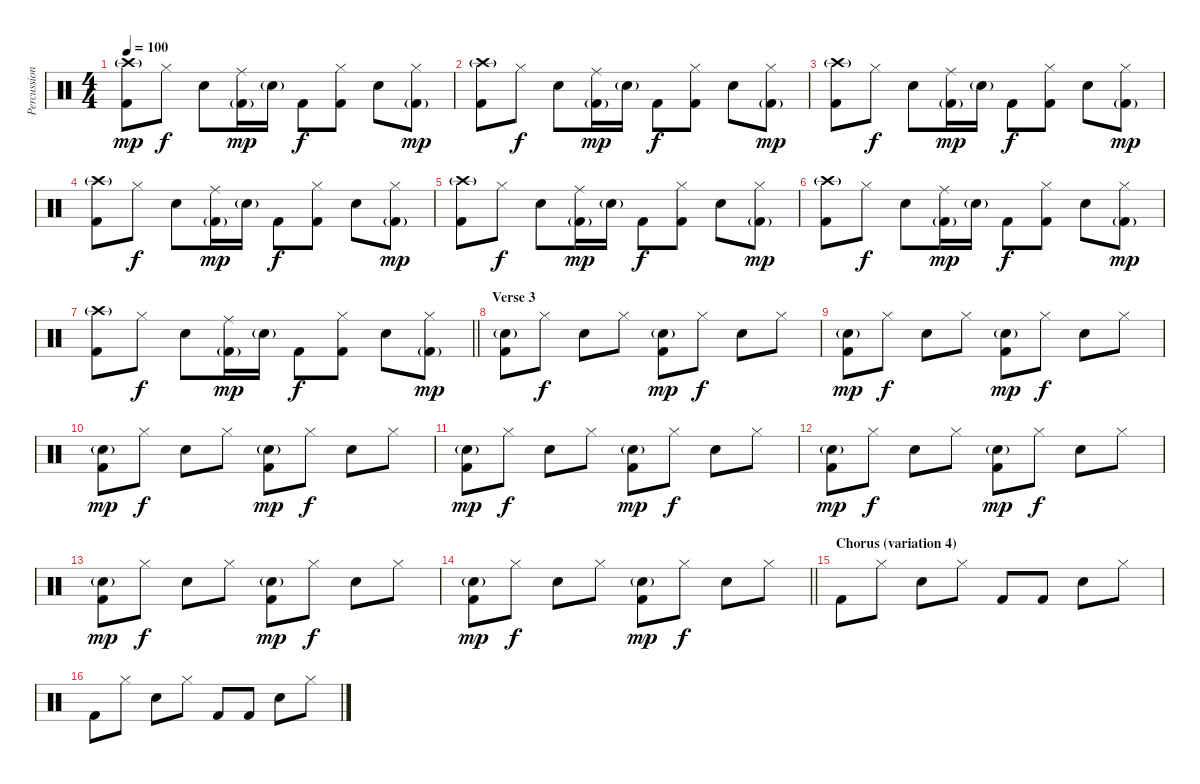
\track ("Percussion" "Percussion") {instrument percussion}
\staff {score}
\articulation defaults
\ts (4 4)
\tempo 100
\clef neutral
\ks c
("Crash high (hit)"{g} "Kick (hit) 2").8{dy mp} "Hi-Hat (closed)".8{dy f} "Snare (hit) 2".8 ("Ride (middle)" "Kick (hit) 2"{g}).16{dy mp} "Snare (hit) 2"{g}.16 "Kick (hit) 2".8{dy f} ("Hi-Hat (closed)" "Kick (hit) 2").8 "Snare (hit) 2".8 ("Hi-Hat (closed)" "Kick (hit) 2"{g}).8{dy mp} |
("Crash high (hit)"{g} "Kick (hit) 2").8 "Hi-Hat (closed)".8{dy f} "Snare (hit) 2".8 ("Ride (middle)" "Kick (hit) 2"{g}).16{dy mp} "Snare (hit) 2"{g}.16 "Kick (hit) 2".8{dy f} ("Hi-Hat (closed)" "Kick (hit) 2").8 "Snare (hit) 2".8 ("Hi-Hat (closed)" "Kick (hit) 2"{g}).8{dy mp} |
("Crash high (hit)"{g} "Kick (hit) 2").8 "Hi-Hat (closed)".8{dy f} "Snare (hit) 2".8 ("Ride (middle)" "Kick (hit) 2"{g}).16{dy mp} "Snare (hit) 2"{g}.16 "Kick (hit) 2".8{dy f} ("Hi-Hat (closed)" "Kick (hit) 2").8 "Snare (hit) 2".8 ("Hi-Hat (closed)" "Kick (hit) 2"{g}).8{dy mp} |
("Crash high (hit)"{g} "Kick (hit) 2").8 "Hi-Hat (closed)".8{dy f} "Snare (hit) 2".8 ("Ride (middle)" "Kick (hit) 2"{g}).16{dy mp} "Snare (hit) 2"{g}.16 "Kick (hit) 2".8{dy f} ("Hi-Hat (closed)" "Kick (hit) 2").8 "Snare (hit) 2".8 ("Hi-Hat (closed)" "Kick (hit) 2"{g}).8{dy mp} |
("Crash high (hit)"{g} "Kick (hit) 2").8 "Hi-Hat (closed)".8{dy f} "Snare (hit) 2".8 ("Ride (middle)" "Kick (hit) 2"{g}).16{dy mp} "Snare (hit) 2"{g}.16 "Kick (hit) 2".8{dy f} ("Hi-Hat (closed)" "Kick (hit) 2").8 "Snare (hit) 2".8 ("Hi-Hat (closed)" "Kick (hit) 2"{g}).8{dy mp} |
("Crash high (hit)"{g} "Kick (hit) 2").8 "Hi-Hat (closed)".8{dy f} "Snare (hit) 2".8 ("Ride (middle)" "Kick (hit) 2"{g}).16{dy mp} "Snare (hit) 2"{g}.16 "Kick (hit) 2".8{dy f} ("Hi-Hat (closed)" "Kick (hit) 2").8 "Snare (hit) 2".8 ("Hi-Hat (closed)" "Kick (hit) 2"{g}).8{dy mp} |
\barLineRight lightlight
("Crash high (hit)"{g} "Kick (hit) 2").8 "Hi-Hat (closed)".8{dy f} "Snare (hit) 2".8 ("Ride (middle)" "Kick (hit) 2"{g}).16{dy mp} "Snare (hit) 2"{g}.16 "Kick (hit) 2".8{dy f} ("Hi-Hat (closed)" "Kick (hit) 2").8 "Snare (hit) 2".8 ("Hi-Hat (closed)" "Kick (hit) 2"{g}).8{dy mp} |
\section ("" "Verse 3")
("Snare (hit) 2"{g} "Kick (hit) 2").8 "Hi-Hat (closed)".8{dy f} "Snare (hit) 2".8 "Hi-Hat (closed)".8 ("Snare (hit) 2"{g} "Kick (hit) 2").8{dy mp} "Hi-Hat (closed)".8{dy f} "Snare (hit) 2".8 "Hi-Hat (closed)".8 |
("Snare (hit) 2"{g} "Kick (hit) 2").8{dy mp} "Hi-Hat (closed)".8{dy f} "Snare (hit) 2".8 "Hi-Hat (closed)".8 ("Snare (hit) 2"{g} "Kick (hit) 2").8{dy mp} "Hi-Hat (closed)".8{dy f} "Snare (hit) 2".8 "Hi-Hat (closed)".8 |
("Snare (hit) 2"{g} "Kick (hit) 2").8{dy mp} "Hi-Hat (closed)".8{dy f} "Snare (hit) 2".8 "Hi-Hat (closed)".8 ("Snare (hit) 2"{g} "Kick (hit) 2").8{dy mp} "Hi-Hat (closed)".8{dy f} "Snare (hit) 2".8 "Hi-Hat (closed)".8 |
("Snare (hit) 2"{g} "Kick (hit) 2").8{dy mp} "Hi-Hat (closed)".8{dy f} "Snare (hit) 2".8 "Hi-Hat (closed)".8 ("Snare (hit) 2"{g} "Kick (hit) 2").8{dy mp} "Hi-Hat (closed)".8{dy f} "Snare (hit) 2".8 "Hi-Hat (closed)".8 |
("Snare (hit) 2"{g} "Kick (hit) 2").8{dy mp} "Hi-Hat (closed)".8{dy f} "Snare (hit) 2".8 "Hi-Hat (closed)".8 ("Snare (hit) 2"{g} "Kick (hit) 2").8{dy mp} "Hi-Hat (closed)".8{dy f} "Snare (hit) 2".8 "Hi-Hat (closed)".8 |
("Snare (hit) 2"{g} "Kick (hit) 2").8{dy mp} "Hi-Hat (closed)".8{dy f} "Snare (hit) 2".8 "Hi-Hat (closed)".8 ("Snare (hit) 2"{g} "Kick (hit) 2").8{dy mp} "Hi-Hat (closed)".8{dy f} "Snare (hit) 2".8 "Hi-Hat (closed)".8 |
\barLineRight lightlight
("Snare (hit) 2"{g} "Kick (hit) 2").8{dy mp} "Hi-Hat (closed)".8{dy f} "Snare (hit) 2".8 "Hi-Hat (closed)".8 ("Snare (hit) 2"{g} "Kick (hit) 2").8{dy mp} "Hi-Hat (closed)".8{dy f} "Snare (hit) 2".8 "Hi-Hat (closed)".8 |
\section ("" "Chorus (variation 4)")
"Kick (hit) 2".8 "Hi-Hat (closed)".8 "Snare (hit) 2".8 "Hi-Hat (closed)".8 "Kick (hit) 2".8 "Kick (hit) 2".8 "Snare (hit) 2".8 "Hi-Hat (closed)".8 |
"Kick (hit) 2".8 "Hi-Hat (closed)".8 "Snare (hit) 2".8 "Hi-Hat (closed)".8 "Kick (hit) 2".8 "Kick (hit) 2".8 "Snare (hit) 2".8 "Hi-Hat (closed)".8
